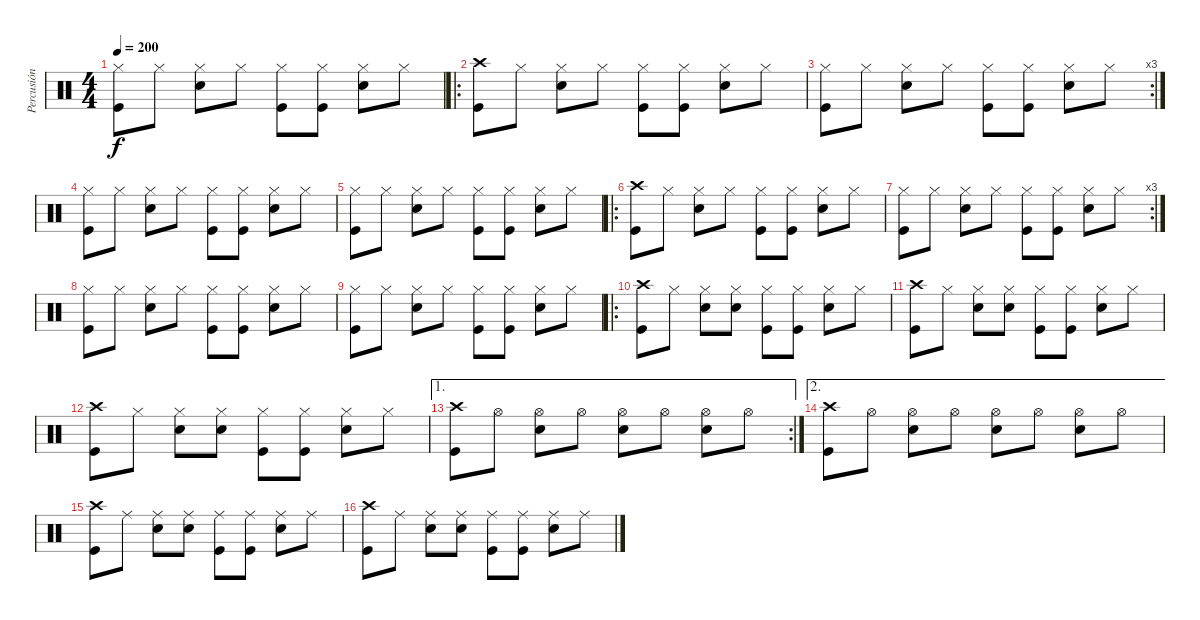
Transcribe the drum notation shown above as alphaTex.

\track ("Percusión" "Percusión") {instrument percussion}
\staff {score}
\articulation defaults
\ts (4 4)
\tempo 200
\clef neutral
\ks c
("Hi-Hat (closed)" "Kick (hit)").8{dy f} "Hi-Hat (closed)".8 ("Hi-Hat (closed)" "Snare (hit) 2").8 "Hi-Hat (closed)".8 ("Hi-Hat (closed)" "Kick (hit)").8 ("Hi-Hat (closed)" "Kick (hit)").8 ("Hi-Hat (closed)" "Snare (hit) 2").8 "Hi-Hat (closed)".8 |
\ro
("Crash high (hit)" "Kick (hit)").8 "Hi-Hat (closed)".8 ("Hi-Hat (closed)" "Snare (hit) 2").8 "Hi-Hat (closed)".8 ("Hi-Hat (closed)" "Kick (hit)").8 ("Hi-Hat (closed)" "Kick (hit)").8 ("Hi-Hat (closed)" "Snare (hit) 2").8 "Hi-Hat (closed)".8 |
\rc 3
("Hi-Hat (closed)" "Kick (hit)").8 "Hi-Hat (closed)".8 ("Hi-Hat (closed)" "Snare (hit) 2").8 "Hi-Hat (closed)".8 ("Hi-Hat (closed)" "Kick (hit)").8 ("Hi-Hat (closed)" "Kick (hit)").8 ("Hi-Hat (closed)" "Snare (hit) 2").8 "Hi-Hat (closed)".8 |
("Hi-Hat (closed)" "Kick (hit)").8 "Hi-Hat (closed)".8 ("Hi-Hat (closed)" "Snare (hit) 2").8 "Hi-Hat (closed)".8 ("Hi-Hat (closed)" "Kick (hit)").8 ("Hi-Hat (closed)" "Kick (hit)").8 ("Hi-Hat (closed)" "Snare (hit) 2").8 "Hi-Hat (closed)".8 |
("Hi-Hat (closed)" "Kick (hit)").8 "Hi-Hat (closed)".8 ("Hi-Hat (closed)" "Snare (hit) 2").8 "Hi-Hat (closed)".8 ("Hi-Hat (closed)" "Kick (hit)").8 ("Hi-Hat (closed)" "Kick (hit)").8 ("Hi-Hat (closed)" "Snare (hit) 2").8 "Hi-Hat (closed)".8 |
\ro
("Crash high (hit)" "Kick (hit)").8 "Hi-Hat (closed)".8 ("Hi-Hat (closed)" "Snare (hit) 2").8 "Hi-Hat (closed)".8 ("Hi-Hat (closed)" "Kick (hit)").8 ("Hi-Hat (closed)" "Kick (hit)").8 ("Hi-Hat (closed)" "Snare (hit) 2").8 "Hi-Hat (closed)".8 |
\rc 3
("Hi-Hat (closed)" "Kick (hit)").8 "Hi-Hat (closed)".8 ("Hi-Hat (closed)" "Snare (hit) 2").8 "Hi-Hat (closed)".8 ("Hi-Hat (closed)" "Kick (hit)").8 ("Hi-Hat (closed)" "Kick (hit)").8 ("Hi-Hat (closed)" "Snare (hit) 2").8 "Hi-Hat (closed)".8 |
("Hi-Hat (closed)" "Kick (hit)").8 "Hi-Hat (closed)".8 ("Hi-Hat (closed)" "Snare (hit) 2").8 "Hi-Hat (closed)".8 ("Hi-Hat (closed)" "Kick (hit)").8 ("Hi-Hat (closed)" "Kick (hit)").8 ("Hi-Hat (closed)" "Snare (hit) 2").8 "Hi-Hat (closed)".8 |
("Hi-Hat (closed)" "Kick (hit)").8 "Hi-Hat (closed)".8 ("Hi-Hat (closed)" "Snare (hit) 2").8 "Hi-Hat (closed)".8 ("Hi-Hat (closed)" "Kick (hit)").8 ("Hi-Hat (closed)" "Kick (hit)").8 ("Hi-Hat (closed)" "Snare (hit) 2").8 "Hi-Hat (closed)".8 |
\ro
("Crash high (hit)" "Kick (hit)").8 "Hi-Hat (closed)".8 ("Hi-Hat (closed)" "Snare (hit) 2").8 ("Hi-Hat (closed)" "Snare (hit) 2").8 ("Hi-Hat (closed)" "Kick (hit)").8 ("Hi-Hat (closed)" "Kick (hit)").8 ("Hi-Hat (closed)" "Snare (hit) 2").8 "Hi-Hat (closed)".8 |
("Crash high (hit)" "Kick (hit)").8 "Hi-Hat (closed)".8 ("Hi-Hat (closed)" "Snare (hit) 2").8 ("Hi-Hat (closed)" "Snare (hit) 2").8 ("Hi-Hat (closed)" "Kick (hit)").8 ("Hi-Hat (closed)" "Kick (hit)").8 ("Hi-Hat (closed)" "Snare (hit) 2").8 "Hi-Hat (closed)".8 |
("Crash high (hit)" "Kick (hit)").8 "Hi-Hat (closed)".8 ("Hi-Hat (closed)" "Snare (hit) 2").8 ("Hi-Hat (closed)" "Snare (hit) 2").8 ("Hi-Hat (closed)" "Kick (hit)").8 ("Hi-Hat (closed)" "Kick (hit)").8 ("Hi-Hat (closed)" "Snare (hit) 2").8 "Hi-Hat (closed)".8 |
\ae 1
\rc 2
("Crash high (hit)" "Kick (hit)").8 "Hi-Hat (open)".8 ("Hi-Hat (open)" "Snare (hit) 2").8 "Hi-Hat (open)".8 ("Hi-Hat (open)" "Snare (hit) 2").8 "Hi-Hat (open)".8 ("Hi-Hat (open)" "Snare (hit) 2").8 "Hi-Hat (open)".8 |
\ae 2
("Crash high (hit)" "Kick (hit)").8 "Hi-Hat (open)".8 ("Hi-Hat (open)" "Snare (hit) 2").8 "Hi-Hat (open)".8 ("Hi-Hat (open)" "Snare (hit) 2").8 "Hi-Hat (open)".8 ("Hi-Hat (open)" "Snare (hit) 2").8 "Hi-Hat (open)".8 |
("Crash high (hit)" "Kick (hit)").8 "Ride (middle)".8 ("Ride (middle)" "Snare (hit) 2").8 ("Ride (middle)" "Snare (hit) 2").8 ("Ride (middle)" "Kick (hit)").8 ("Ride (middle)" "Kick (hit)").8 ("Ride (middle)" "Snare (hit) 2").8 "Ride (middle)".8 |
("Crash high (hit)" "Kick (hit)").8 "Ride (middle)".8 ("Ride (middle)" "Snare (hit) 2").8 ("Ride (middle)" "Snare (hit) 2").8 ("Ride (middle)" "Kick (hit)").8 ("Ride (middle)" "Kick (hit)").8 ("Ride (middle)" "Snare (hit) 2").8 "Ride (middle)".8
